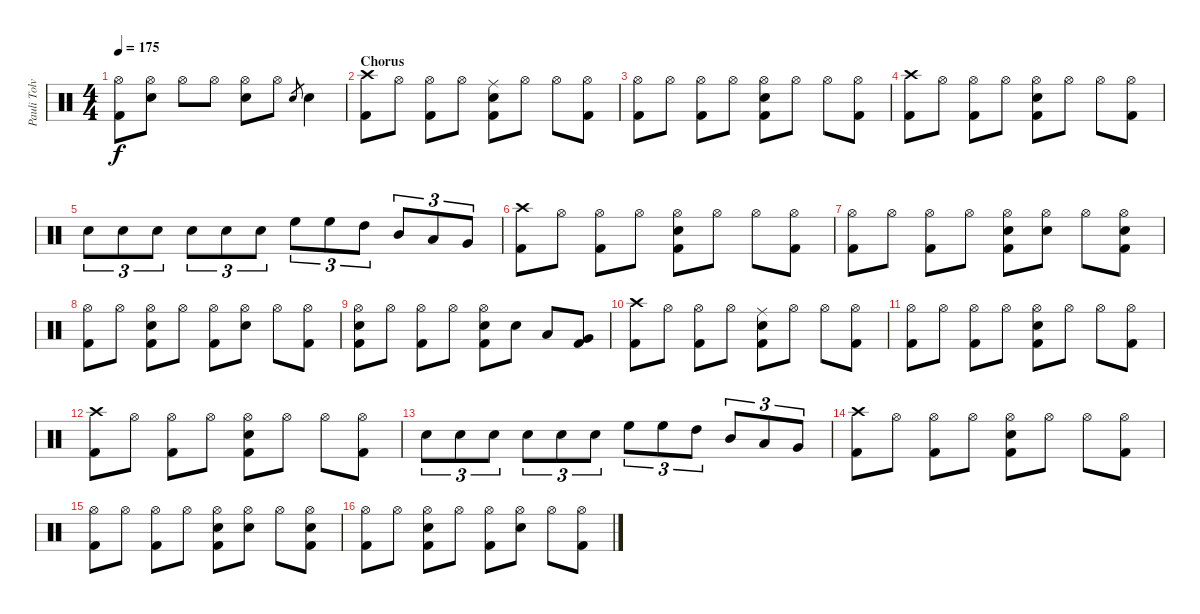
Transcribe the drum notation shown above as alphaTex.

\track ("Pauli Tolvanen-Drums" "Pauli Tolv") {instrument percussion}
\staff {score}
\articulation defaults
\ts (4 4)
\tempo 175
\clef neutral
\ks c
("Hi-Hat (open)" "Kick (hit) 2").8{dy f} ("Hi-Hat (open)" "Snare (hit) 2").8 "Hi-Hat (open)".8 "Hi-Hat (open)".8 ("Hi-Hat (open)" "Snare (hit) 2").8 "Hi-Hat (open)".8 "Snare (hit) 2".8{gr} "Snare (hit) 2".4 |
\section ("" "Chorus")
("Crash high (hit)" "Kick (hit) 2").8 "Hi-Hat (open)".8 ("Hi-Hat (open)" "Kick (hit) 2").8 "Hi-Hat (open)".8 ("Ride (middle)" "Snare (hit) 2" "Kick (hit) 2").8 "Hi-Hat (open)".8 "Hi-Hat (open)".8 ("Hi-Hat (open)" "Kick (hit) 2").8 |
("Hi-Hat (open)" "Kick (hit) 2").8 "Hi-Hat (open)".8 ("Hi-Hat (open)" "Kick (hit) 2").8 "Hi-Hat (open)".8 ("Hi-Hat (open)" "Snare (hit) 2" "Kick (hit) 2").8 "Hi-Hat (open)".8 "Hi-Hat (open)".8 ("Hi-Hat (open)" "Kick (hit) 2").8 |
("Crash high (hit)" "Kick (hit) 2").8 "Hi-Hat (open)".8 ("Hi-Hat (open)" "Kick (hit) 2").8 "Hi-Hat (open)".8 ("Hi-Hat (open)" "Snare (hit) 2" "Kick (hit) 2").8 "Hi-Hat (open)".8 "Hi-Hat (open)".8 ("Hi-Hat (open)" "Kick (hit) 2").8 |
"Snare (hit) 2".8{tu (3 2)} "Snare (hit) 2".8{tu (3 2)} "Snare (hit) 2".8{tu (3 2)} "Snare (hit) 2".8{tu (3 2)} "Snare (hit) 2".8{tu (3 2)} "Snare (hit) 2".8{tu (3 2)} "High Floor Tom (hit)".8{tu (3 2)} "High Floor Tom (hit)".8{tu (3 2)} "High Tom (hit)".8{tu (3 2)} "Mid Tom (hit)".8{tu (3 2)} "Low Tom (hit)".8{tu (3 2)} "Very Low Tom (hit)".8{tu (3 2)} |
("Crash high (hit)" "Kick (hit) 2").8 "Hi-Hat (open)".8 ("Hi-Hat (open)" "Kick (hit) 2").8 "Hi-Hat (open)".8 ("Hi-Hat (open)" "Snare (hit) 2" "Kick (hit) 2").8 "Hi-Hat (open)".8 "Hi-Hat (open)".8 ("Hi-Hat (open)" "Kick (hit) 2").8 |
("Hi-Hat (open)" "Kick (hit) 2").8 "Hi-Hat (open)".8 ("Hi-Hat (open)" "Kick (hit) 2").8 "Hi-Hat (open)".8 ("Hi-Hat (open)" "Snare (hit) 2" "Kick (hit) 2").8 ("Hi-Hat (open)" "Snare (hit) 2").8 "Hi-Hat (open)".8 ("Hi-Hat (open)" "Snare (hit) 2" "Kick (hit) 2").8 |
("Hi-Hat (open)" "Kick (hit) 2").8 "Hi-Hat (open)".8 ("Hi-Hat (open)" "Snare (hit) 2" "Kick (hit) 2").8 "Hi-Hat (open)".8 ("Hi-Hat (open)" "Kick (hit) 2").8 ("Hi-Hat (open)" "Snare (hit) 2").8 "Hi-Hat (open)".8 ("Hi-Hat (open)" "Kick (hit) 2").8 |
("Hi-Hat (open)" "Snare (hit) 2" "Kick (hit) 2").8 "Hi-Hat (open)".8 ("Hi-Hat (open)" "Kick (hit) 2").8 "Hi-Hat (open)".8 ("Hi-Hat (open)" "Snare (hit) 2" "Kick (hit) 2").8 "Snare (hit) 2".8 "Low Tom (hit)".8 ("Very Low Tom (hit)" "Kick (hit) 2").8 |
("Crash high (hit)" "Kick (hit) 2").8 "Hi-Hat (open)".8 ("Hi-Hat (open)" "Kick (hit) 2").8 "Hi-Hat (open)".8 ("Ride (middle)" "Snare (hit) 2" "Kick (hit) 2").8 "Hi-Hat (open)".8 "Hi-Hat (open)".8 ("Hi-Hat (open)" "Kick (hit) 2").8 |
("Hi-Hat (open)" "Kick (hit) 2").8 "Hi-Hat (open)".8 ("Hi-Hat (open)" "Kick (hit) 2").8 "Hi-Hat (open)".8 ("Hi-Hat (open)" "Snare (hit) 2" "Kick (hit) 2").8 "Hi-Hat (open)".8 "Hi-Hat (open)".8 ("Hi-Hat (open)" "Kick (hit) 2").8 |
("Crash high (hit)" "Kick (hit) 2").8 "Hi-Hat (open)".8 ("Hi-Hat (open)" "Kick (hit) 2").8 "Hi-Hat (open)".8 ("Hi-Hat (open)" "Snare (hit) 2" "Kick (hit) 2").8 "Hi-Hat (open)".8 "Hi-Hat (open)".8 ("Hi-Hat (open)" "Kick (hit) 2").8 |
"Snare (hit) 2".8{tu (3 2)} "Snare (hit) 2".8{tu (3 2)} "Snare (hit) 2".8{tu (3 2)} "Snare (hit) 2".8{tu (3 2)} "Snare (hit) 2".8{tu (3 2)} "Snare (hit) 2".8{tu (3 2)} "High Floor Tom (hit)".8{tu (3 2)} "High Floor Tom (hit)".8{tu (3 2)} "High Tom (hit)".8{tu (3 2)} "Mid Tom (hit)".8{tu (3 2)} "Low Tom (hit)".8{tu (3 2)} "Very Low Tom (hit)".8{tu (3 2)} |
("Crash high (hit)" "Kick (hit) 2").8 "Hi-Hat (open)".8 ("Hi-Hat (open)" "Kick (hit) 2").8 "Hi-Hat (open)".8 ("Hi-Hat (open)" "Snare (hit) 2" "Kick (hit) 2").8 "Hi-Hat (open)".8 "Hi-Hat (open)".8 ("Hi-Hat (open)" "Kick (hit) 2").8 |
("Hi-Hat (open)" "Kick (hit) 2").8 "Hi-Hat (open)".8 ("Hi-Hat (open)" "Kick (hit) 2").8 "Hi-Hat (open)".8 ("Hi-Hat (open)" "Snare (hit) 2" "Kick (hit) 2").8 ("Hi-Hat (open)" "Snare (hit) 2").8 "Hi-Hat (open)".8 ("Hi-Hat (open)" "Snare (hit) 2" "Kick (hit) 2").8 |
("Hi-Hat (open)" "Kick (hit) 2").8 "Hi-Hat (open)".8 ("Hi-Hat (open)" "Snare (hit) 2" "Kick (hit) 2").8 "Hi-Hat (open)".8 ("Hi-Hat (open)" "Kick (hit) 2").8 ("Hi-Hat (open)" "Snare (hit) 2").8 "Hi-Hat (open)".8 ("Hi-Hat (open)" "Kick (hit) 2").8
